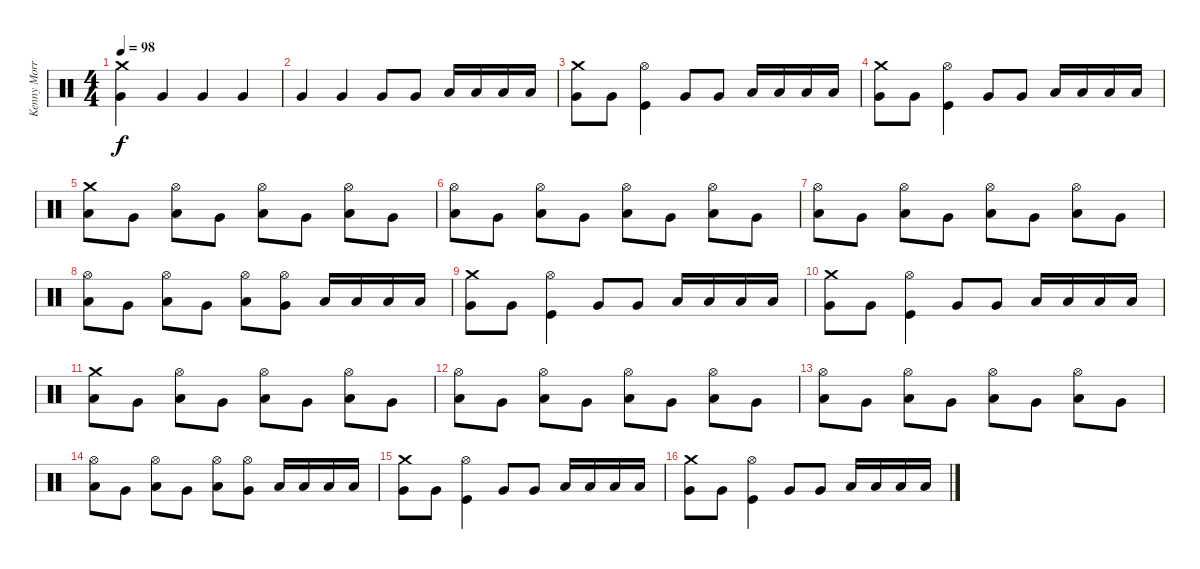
\track ("Kenny Morris" "Kenny Morr") {instrument percussion}
\staff {score}
\articulation defaults
\ts (4 4)
\tempo 98
\clef neutral
\ks c
("Crash medium (hit)" "Very Low Tom (hit)").4{dy f} "Very Low Tom (hit)".4 "Very Low Tom (hit)".4 "Very Low Tom (hit)".4 |
"Very Low Tom (hit)".4 "Very Low Tom (hit)".4 "Very Low Tom (hit)".8 "Very Low Tom (hit)".8 "Low Tom (hit)".16 "Low Tom (hit)".16 "Low Tom (hit)".16 "Low Tom (hit)".16 |
("Crash medium (hit)" "Very Low Tom (hit)").8 "Very Low Tom (hit)".8 ("Hi-Hat (open)" "Kick (hit)").4 "Very Low Tom (hit)".8 "Very Low Tom (hit)".8 "Low Tom (hit)".16 "Low Tom (hit)".16 "Low Tom (hit)".16 "Low Tom (hit)".16 |
("Crash medium (hit)" "Very Low Tom (hit)").8 "Very Low Tom (hit)".8 ("Hi-Hat (open)" "Kick (hit)").4 "Very Low Tom (hit)".8 "Very Low Tom (hit)".8 "Low Tom (hit)".16 "Low Tom (hit)".16 "Low Tom (hit)".16 "Low Tom (hit)".16 |
("Crash medium (hit)" "Low Tom (hit)").8 "Very Low Tom (hit)".8 ("Hi-Hat (open)" "Low Tom (hit)").8 "Very Low Tom (hit)".8 ("Hi-Hat (open)" "Low Tom (hit)").8 "Very Low Tom (hit)".8 ("Hi-Hat (open)" "Low Tom (hit)").8 "Very Low Tom (hit)".8 |
("Hi-Hat (open)" "Low Tom (hit)").8 "Very Low Tom (hit)".8 ("Hi-Hat (open)" "Low Tom (hit)").8 "Very Low Tom (hit)".8 ("Hi-Hat (open)" "Low Tom (hit)").8 "Very Low Tom (hit)".8 ("Hi-Hat (open)" "Low Tom (hit)").8 "Very Low Tom (hit)".8 |
("Hi-Hat (open)" "Low Tom (hit)").8 "Very Low Tom (hit)".8 ("Hi-Hat (open)" "Low Tom (hit)").8 "Very Low Tom (hit)".8 ("Hi-Hat (open)" "Low Tom (hit)").8 "Very Low Tom (hit)".8 ("Hi-Hat (open)" "Low Tom (hit)").8 "Very Low Tom (hit)".8 |
("Hi-Hat (open)" "Low Tom (hit)").8 "Very Low Tom (hit)".8 ("Hi-Hat (open)" "Low Tom (hit)").8 "Very Low Tom (hit)".8 ("Hi-Hat (open)" "Low Tom (hit)").8 ("Hi-Hat (open)" "Very Low Tom (hit)").8 "Low Tom (hit)".16 "Low Tom (hit)".16 "Low Tom (hit)".16 "Low Tom (hit)".16 |
("Crash medium (hit)" "Very Low Tom (hit)").8 "Very Low Tom (hit)".8 ("Hi-Hat (open)" "Kick (hit)").4 "Very Low Tom (hit)".8 "Very Low Tom (hit)".8 "Low Tom (hit)".16 "Low Tom (hit)".16 "Low Tom (hit)".16 "Low Tom (hit)".16 |
("Crash medium (hit)" "Very Low Tom (hit)").8 "Very Low Tom (hit)".8 ("Hi-Hat (open)" "Kick (hit)").4 "Very Low Tom (hit)".8 "Very Low Tom (hit)".8 "Low Tom (hit)".16 "Low Tom (hit)".16 "Low Tom (hit)".16 "Low Tom (hit)".16 |
("Crash medium (hit)" "Low Tom (hit)").8 "Very Low Tom (hit)".8 ("Hi-Hat (open)" "Low Tom (hit)").8 "Very Low Tom (hit)".8 ("Hi-Hat (open)" "Low Tom (hit)").8 "Very Low Tom (hit)".8 ("Hi-Hat (open)" "Low Tom (hit)").8 "Very Low Tom (hit)".8 |
("Hi-Hat (open)" "Low Tom (hit)").8 "Very Low Tom (hit)".8 ("Hi-Hat (open)" "Low Tom (hit)").8 "Very Low Tom (hit)".8 ("Hi-Hat (open)" "Low Tom (hit)").8 "Very Low Tom (hit)".8 ("Hi-Hat (open)" "Low Tom (hit)").8 "Very Low Tom (hit)".8 |
("Hi-Hat (open)" "Low Tom (hit)").8 "Very Low Tom (hit)".8 ("Hi-Hat (open)" "Low Tom (hit)").8 "Very Low Tom (hit)".8 ("Hi-Hat (open)" "Low Tom (hit)").8 "Very Low Tom (hit)".8 ("Hi-Hat (open)" "Low Tom (hit)").8 "Very Low Tom (hit)".8 |
("Hi-Hat (open)" "Low Tom (hit)").8 "Very Low Tom (hit)".8 ("Hi-Hat (open)" "Low Tom (hit)").8 "Very Low Tom (hit)".8 ("Hi-Hat (open)" "Low Tom (hit)").8 ("Hi-Hat (open)" "Very Low Tom (hit)").8 "Low Tom (hit)".16 "Low Tom (hit)".16 "Low Tom (hit)".16 "Low Tom (hit)".16 |
("Crash medium (hit)" "Very Low Tom (hit)").8 "Very Low Tom (hit)".8 ("Hi-Hat (open)" "Kick (hit)").4 "Very Low Tom (hit)".8 "Very Low Tom (hit)".8 "Low Tom (hit)".16 "Low Tom (hit)".16 "Low Tom (hit)".16 "Low Tom (hit)".16 |
("Crash medium (hit)" "Very Low Tom (hit)").8 "Very Low Tom (hit)".8 ("Hi-Hat (open)" "Kick (hit)").4 "Very Low Tom (hit)".8 "Very Low Tom (hit)".8 "Low Tom (hit)".16 "Low Tom (hit)".16 "Low Tom (hit)".16 "Low Tom (hit)".16
